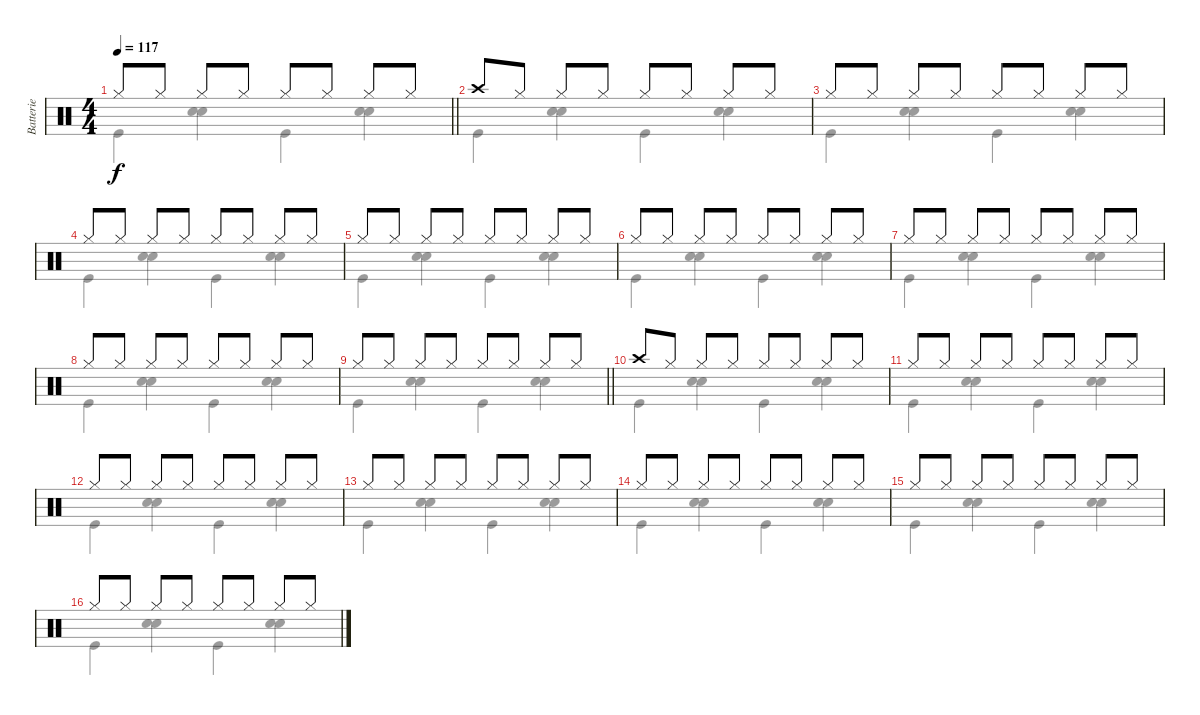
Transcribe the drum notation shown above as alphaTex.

\track ("Batterie" "Batterie") {instrument percussion}
\staff {score}
\articulation defaults
\voice
\ts (4 4)
\tempo 117
\clef neutral
\barLineRight lightlight
\ks c "Hi-Hat (closed)".8{dy f} "Hi-Hat (closed)".8 "Hi-Hat (closed)".8 "Hi-Hat (closed)".8 "Hi-Hat (closed)".8 "Hi-Hat (closed)".8 "Hi-Hat (closed)".8 "Hi-Hat (closed)".8
|
"Crash high (hit)".8 "Hi-Hat (closed)".8 "Hi-Hat (closed)".8 "Hi-Hat (closed)".8 "Hi-Hat (closed)".8 "Hi-Hat (closed)".8 "Hi-Hat (closed)".8 "Hi-Hat (closed)".8 |
"Hi-Hat (closed)".8 "Hi-Hat (closed)".8 "Hi-Hat (closed)".8 "Hi-Hat (closed)".8 "Hi-Hat (closed)".8 "Hi-Hat (closed)".8 "Hi-Hat (closed)".8 "Hi-Hat (closed)".8 |
"Hi-Hat (closed)".8 "Hi-Hat (closed)".8 "Hi-Hat (closed)".8 "Hi-Hat (closed)".8 "Hi-Hat (closed)".8 "Hi-Hat (closed)".8 "Hi-Hat (closed)".8 "Hi-Hat (closed)".8 |
"Hi-Hat (closed)".8 "Hi-Hat (closed)".8 "Hi-Hat (closed)".8 "Hi-Hat (closed)".8 "Hi-Hat (closed)".8 "Hi-Hat (closed)".8 "Hi-Hat (closed)".8 "Hi-Hat (closed)".8 |
"Hi-Hat (closed)".8 "Hi-Hat (closed)".8 "Hi-Hat (closed)".8 "Hi-Hat (closed)".8 "Hi-Hat (closed)".8 "Hi-Hat (closed)".8 "Hi-Hat (closed)".8 "Hi-Hat (closed)".8 |
"Hi-Hat (closed)".8 "Hi-Hat (closed)".8 "Hi-Hat (closed)".8 "Hi-Hat (closed)".8 "Hi-Hat (closed)".8 "Hi-Hat (closed)".8 "Hi-Hat (closed)".8 "Hi-Hat (closed)".8 |
"Hi-Hat (closed)".8 "Hi-Hat (closed)".8 "Hi-Hat (closed)".8 "Hi-Hat (closed)".8 "Hi-Hat (closed)".8 "Hi-Hat (closed)".8 "Hi-Hat (closed)".8 "Hi-Hat (closed)".8 |
\barLineRight lightlight "Hi-Hat (closed)".8 "Hi-Hat (closed)".8 "Hi-Hat (closed)".8 "Hi-Hat (closed)".8 "Hi-Hat (closed)".8 "Hi-Hat (closed)".8 "Hi-Hat (closed)".8 "Hi-Hat (closed)".8
|
"Crash high (hit)".8 "Hi-Hat (closed)".8 "Hi-Hat (closed)".8 "Hi-Hat (closed)".8 "Hi-Hat (closed)".8 "Hi-Hat (closed)".8 "Hi-Hat (closed)".8 "Hi-Hat (closed)".8 |
"Hi-Hat (closed)".8 "Hi-Hat (closed)".8 "Hi-Hat (closed)".8 "Hi-Hat (closed)".8 "Hi-Hat (closed)".8 "Hi-Hat (closed)".8 "Hi-Hat (closed)".8 "Hi-Hat (closed)".8 |
"Hi-Hat (closed)".8 "Hi-Hat (closed)".8 "Hi-Hat (closed)".8 "Hi-Hat (closed)".8 "Hi-Hat (closed)".8 "Hi-Hat (closed)".8 "Hi-Hat (closed)".8 "Hi-Hat (closed)".8 |
"Hi-Hat (closed)".8 "Hi-Hat (closed)".8 "Hi-Hat (closed)".8 "Hi-Hat (closed)".8 "Hi-Hat (closed)".8 "Hi-Hat (closed)".8 "Hi-Hat (closed)".8 "Hi-Hat (closed)".8 |
"Hi-Hat (closed)".8 "Hi-Hat (closed)".8 "Hi-Hat (closed)".8 "Hi-Hat (closed)".8 "Hi-Hat (closed)".8 "Hi-Hat (closed)".8 "Hi-Hat (closed)".8 "Hi-Hat (closed)".8 |
"Hi-Hat (closed)".8 "Hi-Hat (closed)".8 "Hi-Hat (closed)".8 "Hi-Hat (closed)".8 "Hi-Hat (closed)".8 "Hi-Hat (closed)".8 "Hi-Hat (closed)".8 "Hi-Hat (closed)".8 |
"Hi-Hat (closed)".8 "Hi-Hat (closed)".8 "Hi-Hat (closed)".8 "Hi-Hat (closed)".8 "Hi-Hat (closed)".8 "Hi-Hat (closed)".8 "Hi-Hat (closed)".8 "Hi-Hat (closed)".8
\voice
\clef neutral
\ottava regular
\simile none
\barLineRight lightlight
\ks c "Kick (hit)".4{dy f}
("Hand Clap (hit)" "Snare (hit) 2").4 "Kick (hit)".4 ("Hand Clap (hit)" "Snare (hit) 2").4 |
"Kick (hit)".4 ("Hand Clap (hit)" "Snare (hit) 2").4 "Kick (hit)".4 ("Hand Clap (hit)" "Snare (hit) 2").4 |
"Kick (hit)".4 ("Hand Clap (hit)" "Snare (hit) 2").4 "Kick (hit)".4 ("Hand Clap (hit)" "Snare (hit) 2").4 |
"Kick (hit)".4 ("Hand Clap (hit)" "Snare (hit) 2").4 "Kick (hit)".4 ("Hand Clap (hit)" "Snare (hit) 2").4 |
"Kick (hit)".4 ("Hand Clap (hit)" "Snare (hit) 2").4 "Kick (hit)".4 ("Hand Clap (hit)" "Snare (hit) 2").4 |
"Kick (hit)".4 ("Hand Clap (hit)" "Snare (hit) 2").4 "Kick (hit)".4 ("Hand Clap (hit)" "Snare (hit) 2").4 |
"Kick (hit)".4 ("Hand Clap (hit)" "Snare (hit) 2").4 "Kick (hit)".4 ("Hand Clap (hit)" "Snare (hit) 2").4 |
"Kick (hit)".4 ("Hand Clap (hit)" "Snare (hit) 2").4 "Kick (hit)".4 ("Hand Clap (hit)" "Snare (hit) 2").4 |
\barLineRight lightlight "Kick (hit)".4
("Hand Clap (hit)" "Snare (hit) 2").4 "Kick (hit)".4 ("Hand Clap (hit)" "Snare (hit) 2").4 |
"Kick (hit)".4 ("Hand Clap (hit)" "Snare (hit) 2").4 "Kick (hit)".4 ("Hand Clap (hit)" "Snare (hit) 2").4 |
"Kick (hit)".4 ("Hand Clap (hit)" "Snare (hit) 2").4 "Kick (hit)".4 ("Hand Clap (hit)" "Snare (hit) 2").4 |
"Kick (hit)".4 ("Hand Clap (hit)" "Snare (hit) 2").4 "Kick (hit)".4 ("Hand Clap (hit)" "Snare (hit) 2").4 |
"Kick (hit)".4 ("Hand Clap (hit)" "Snare (hit) 2").4 "Kick (hit)".4 ("Hand Clap (hit)" "Snare (hit) 2").4 |
"Kick (hit)".4 ("Hand Clap (hit)" "Snare (hit) 2").4 "Kick (hit)".4 ("Hand Clap (hit)" "Snare (hit) 2").4 |
"Kick (hit)".4 ("Hand Clap (hit)" "Snare (hit) 2").4 "Kick (hit)".4 ("Hand Clap (hit)" "Snare (hit) 2").4 |
"Kick (hit)".4 ("Hand Clap (hit)" "Snare (hit) 2").4 "Kick (hit)".4 ("Hand Clap (hit)" "Snare (hit) 2").4
